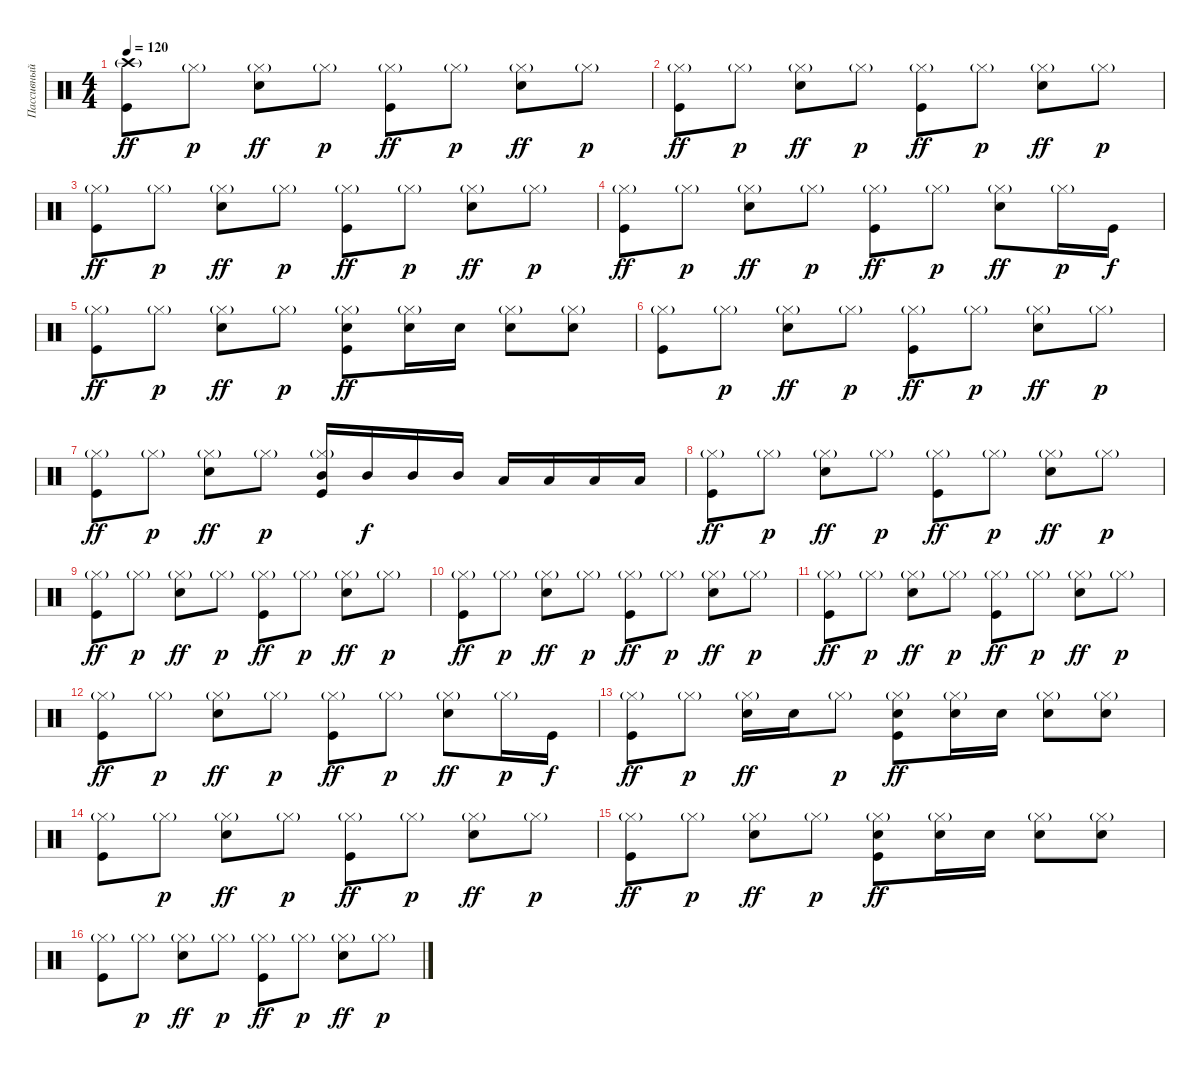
\track ("Пассивный ударник" "Пассивный ") {instrument percussion}
\staff {score}
\articulation defaults
\ts (4 4)
\tempo 120
\clef neutral
\ks c
("Crash high (hit)"{g} "Kick (hit)").8{dy ff} "Hi-Hat (closed)"{g}.8{dy p} ("Hi-Hat (closed)"{g} "Electric Snare (hit)").8{dy ff} "Hi-Hat (closed)"{g}.8{dy p} ("Hi-Hat (closed)"{g} "Kick (hit)").8{dy ff} "Hi-Hat (closed)"{g}.8{dy p} ("Hi-Hat (closed)"{g} "Electric Snare (hit)").8{dy ff} "Hi-Hat (closed)"{g}.8{dy p} |
("Hi-Hat (closed)"{g} "Kick (hit)").8{dy ff} "Hi-Hat (closed)"{g}.8{dy p} ("Hi-Hat (closed)"{g} "Electric Snare (hit)").8{dy ff} "Hi-Hat (closed)"{g}.8{dy p} ("Hi-Hat (closed)"{g} "Kick (hit)").8{dy ff} "Hi-Hat (closed)"{g}.8{dy p} ("Hi-Hat (closed)"{g} "Electric Snare (hit)").8{dy ff} "Hi-Hat (closed)"{g}.8{dy p} |
("Hi-Hat (closed)"{g} "Kick (hit)").8{dy ff} "Hi-Hat (closed)"{g}.8{dy p} ("Hi-Hat (closed)"{g} "Electric Snare (hit)").8{dy ff} "Hi-Hat (closed)"{g}.8{dy p} ("Hi-Hat (closed)"{g} "Kick (hit)").8{dy ff} "Hi-Hat (closed)"{g}.8{dy p} ("Hi-Hat (closed)"{g} "Electric Snare (hit)").8{dy ff} "Hi-Hat (closed)"{g}.8{dy p} |
("Hi-Hat (closed)"{g} "Kick (hit)").8{dy ff} "Hi-Hat (closed)"{g}.8{dy p} ("Hi-Hat (closed)"{g} "Electric Snare (hit)").8{dy ff} "Hi-Hat (closed)"{g}.8{dy p} ("Hi-Hat (closed)"{g} "Kick (hit)").8{dy ff} "Hi-Hat (closed)"{g}.8{dy p} ("Hi-Hat (closed)"{g} "Electric Snare (hit)").8{dy ff} "Hi-Hat (closed)"{g}.16{dy p} "Kick (hit)".16{dy f} |
("Hi-Hat (closed)"{g} "Kick (hit)").8{dy ff} "Hi-Hat (closed)"{g}.8{dy p} ("Hi-Hat (closed)"{g} "Electric Snare (hit)").8{dy ff} "Hi-Hat (closed)"{g}.8{dy p} ("Hi-Hat (closed)"{g} "Electric Snare (hit)" "Kick (hit)").8{dy ff} ("Hi-Hat (closed)"{g} "Electric Snare (hit)").16 "Electric Snare (hit)".16 ("Hi-Hat (closed)"{g} "Electric Snare (hit)").8 ("Hi-Hat (closed)"{g} "Electric Snare (hit)").8 |
("Hi-Hat (closed)"{g} "Kick (hit)").8 "Hi-Hat (closed)"{g}.8{dy p} ("Hi-Hat (closed)"{g} "Electric Snare (hit)").8{dy ff} "Hi-Hat (closed)"{g}.8{dy p} ("Hi-Hat (closed)"{g} "Kick (hit)").8{dy ff} "Hi-Hat (closed)"{g}.8{dy p} ("Hi-Hat (closed)"{g} "Electric Snare (hit)").8{dy ff} "Hi-Hat (closed)"{g}.8{dy p} |
("Hi-Hat (closed)"{g} "Kick (hit)").8{dy ff} "Hi-Hat (closed)"{g}.8{dy p} ("Hi-Hat (closed)"{g} "Electric Snare (hit)").8{dy ff} "Hi-Hat (closed)"{g}.8{dy p} ("Hi-Hat (closed)"{g} "Mid Tom (hit)" "Kick (hit)").16 "Mid Tom (hit)".16{dy f} "Mid Tom (hit)".16 "Mid Tom (hit)".16 "Low Tom (hit)".16 "Low Tom (hit)".16 "Low Tom (hit)".16 "Low Tom (hit)".16 |
("Hi-Hat (closed)"{g} "Kick (hit)").8{dy ff} "Hi-Hat (closed)"{g}.8{dy p} ("Hi-Hat (closed)"{g} "Electric Snare (hit)").8{dy ff} "Hi-Hat (closed)"{g}.8{dy p} ("Hi-Hat (closed)"{g} "Kick (hit)").8{dy ff} "Hi-Hat (closed)"{g}.8{dy p} ("Hi-Hat (closed)"{g} "Electric Snare (hit)").8{dy ff} "Hi-Hat (closed)"{g}.8{dy p} |
("Hi-Hat (closed)"{g} "Kick (hit)").8{dy ff} "Hi-Hat (closed)"{g}.8{dy p} ("Hi-Hat (closed)"{g} "Electric Snare (hit)").8{dy ff} "Hi-Hat (closed)"{g}.8{dy p} ("Hi-Hat (closed)"{g} "Kick (hit)").8{dy ff} "Hi-Hat (closed)"{g}.8{dy p} ("Hi-Hat (closed)"{g} "Electric Snare (hit)").8{dy ff} "Hi-Hat (closed)"{g}.8{dy p} |
("Hi-Hat (closed)"{g} "Kick (hit)").8{dy ff} "Hi-Hat (closed)"{g}.8{dy p} ("Hi-Hat (closed)"{g} "Electric Snare (hit)").8{dy ff} "Hi-Hat (closed)"{g}.8{dy p} ("Hi-Hat (closed)"{g} "Kick (hit)").8{dy ff} "Hi-Hat (closed)"{g}.8{dy p} ("Hi-Hat (closed)"{g} "Electric Snare (hit)").8{dy ff} "Hi-Hat (closed)"{g}.8{dy p} |
("Hi-Hat (closed)"{g} "Kick (hit)").8{dy ff} "Hi-Hat (closed)"{g}.8{dy p} ("Hi-Hat (closed)"{g} "Electric Snare (hit)").8{dy ff} "Hi-Hat (closed)"{g}.8{dy p} ("Hi-Hat (closed)"{g} "Kick (hit)").8{dy ff} "Hi-Hat (closed)"{g}.8{dy p} ("Hi-Hat (closed)"{g} "Electric Snare (hit)").8{dy ff} "Hi-Hat (closed)"{g}.8{dy p} |
("Hi-Hat (closed)"{g} "Kick (hit)").8{dy ff} "Hi-Hat (closed)"{g}.8{dy p} ("Hi-Hat (closed)"{g} "Electric Snare (hit)").8{dy ff} "Hi-Hat (closed)"{g}.8{dy p} ("Hi-Hat (closed)"{g} "Kick (hit)").8{dy ff} "Hi-Hat (closed)"{g}.8{dy p} ("Hi-Hat (closed)"{g} "Electric Snare (hit)").8{dy ff} "Hi-Hat (closed)"{g}.16{dy p} "Kick (hit)".16{dy f} |
("Hi-Hat (closed)"{g} "Kick (hit)").8{dy ff} "Hi-Hat (closed)"{g}.8{dy p} ("Hi-Hat (closed)"{g} "Electric Snare (hit)").16{dy ff} "Electric Snare (hit)".16 "Hi-Hat (closed)"{g}.8{dy p} ("Hi-Hat (closed)"{g} "Electric Snare (hit)" "Kick (hit)").8{dy ff} ("Hi-Hat (closed)"{g} "Electric Snare (hit)").16 "Electric Snare (hit)".16 ("Hi-Hat (closed)"{g} "Electric Snare (hit)").8 ("Hi-Hat (closed)"{g} "Electric Snare (hit)").8 |
("Hi-Hat (closed)"{g} "Kick (hit)").8 "Hi-Hat (closed)"{g}.8{dy p} ("Hi-Hat (closed)"{g} "Electric Snare (hit)").8{dy ff} "Hi-Hat (closed)"{g}.8{dy p} ("Hi-Hat (closed)"{g} "Kick (hit)").8{dy ff} "Hi-Hat (closed)"{g}.8{dy p} ("Hi-Hat (closed)"{g} "Electric Snare (hit)").8{dy ff} "Hi-Hat (closed)"{g}.8{dy p} |
("Hi-Hat (closed)"{g} "Kick (hit)").8{dy ff} "Hi-Hat (closed)"{g}.8{dy p} ("Hi-Hat (closed)"{g} "Electric Snare (hit)").8{dy ff} "Hi-Hat (closed)"{g}.8{dy p} ("Hi-Hat (closed)"{g} "Electric Snare (hit)" "Kick (hit)").8{dy ff} ("Hi-Hat (closed)"{g} "Electric Snare (hit)").16 "Electric Snare (hit)".16 ("Hi-Hat (closed)"{g} "Electric Snare (hit)").8 ("Hi-Hat (closed)"{g} "Electric Snare (hit)").8 |
("Hi-Hat (closed)"{g} "Kick (hit)").8 "Hi-Hat (closed)"{g}.8{dy p} ("Hi-Hat (closed)"{g} "Electric Snare (hit)").8{dy ff} "Hi-Hat (closed)"{g}.8{dy p} ("Hi-Hat (closed)"{g} "Kick (hit)").8{dy ff} "Hi-Hat (closed)"{g}.8{dy p} ("Hi-Hat (closed)"{g} "Electric Snare (hit)").8{dy ff} "Hi-Hat (closed)"{g}.8{dy p}
